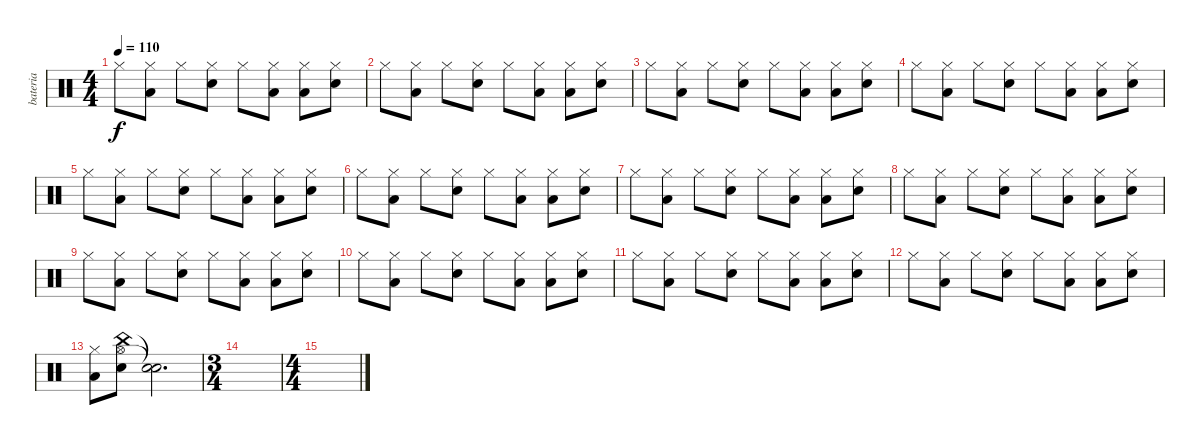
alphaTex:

\track ("bateria" "bateria") {instrument percussion}
\staff {score}
\articulation defaults
\ts (4 4)
\tempo 110
\clef neutral
\ks c "Hi-Hat (closed)".8{dy f}
("Hi-Hat (closed)" "Low Floor Tom (hit)").8 "Hi-Hat (closed)".8 ("Hi-Hat (closed)" "Electric Snare (hit)").8 "Hi-Hat (closed)".8 ("Hi-Hat (closed)" "Low Floor Tom (hit)").8 ("Hi-Hat (closed)" "Low Floor Tom (hit)").8 ("Hi-Hat (closed)" "Electric Snare (hit)").8 |
"Hi-Hat (closed)".8 ("Hi-Hat (closed)" "Low Floor Tom (hit)").8 "Hi-Hat (closed)".8 ("Hi-Hat (closed)" "Electric Snare (hit)").8 "Hi-Hat (closed)".8 ("Hi-Hat (closed)" "Low Floor Tom (hit)").8 ("Hi-Hat (closed)" "Low Floor Tom (hit)").8 ("Hi-Hat (closed)" "Electric Snare (hit)").8 |
"Hi-Hat (closed)".8 ("Hi-Hat (closed)" "Low Floor Tom (hit)").8 "Hi-Hat (closed)".8 ("Hi-Hat (closed)" "Electric Snare (hit)").8 "Hi-Hat (closed)".8 ("Hi-Hat (closed)" "Low Floor Tom (hit)").8 ("Hi-Hat (closed)" "Low Floor Tom (hit)").8 ("Hi-Hat (closed)" "Electric Snare (hit)").8 |
"Hi-Hat (closed)".8 ("Hi-Hat (closed)" "Low Floor Tom (hit)").8 "Hi-Hat (closed)".8 ("Hi-Hat (closed)" "Electric Snare (hit)").8 "Hi-Hat (closed)".8 ("Hi-Hat (closed)" "Low Floor Tom (hit)").8 ("Hi-Hat (closed)" "Low Floor Tom (hit)").8 ("Hi-Hat (closed)" "Electric Snare (hit)").8 |
"Hi-Hat (closed)".8 ("Hi-Hat (closed)" "Low Floor Tom (hit)").8 "Hi-Hat (closed)".8 ("Hi-Hat (closed)" "Electric Snare (hit)").8 "Hi-Hat (closed)".8 ("Hi-Hat (closed)" "Low Floor Tom (hit)").8 ("Hi-Hat (closed)" "Low Floor Tom (hit)").8 ("Hi-Hat (closed)" "Electric Snare (hit)").8 |
"Hi-Hat (closed)".8 ("Hi-Hat (closed)" "Low Floor Tom (hit)").8 "Hi-Hat (closed)".8 ("Hi-Hat (closed)" "Electric Snare (hit)").8 "Hi-Hat (closed)".8 ("Hi-Hat (closed)" "Low Floor Tom (hit)").8 ("Hi-Hat (closed)" "Low Floor Tom (hit)").8 ("Hi-Hat (closed)" "Electric Snare (hit)").8 |
"Hi-Hat (closed)".8 ("Hi-Hat (closed)" "Low Floor Tom (hit)").8 "Hi-Hat (closed)".8 ("Hi-Hat (closed)" "Electric Snare (hit)").8 "Hi-Hat (closed)".8 ("Hi-Hat (closed)" "Low Floor Tom (hit)").8 ("Hi-Hat (closed)" "Low Floor Tom (hit)").8 ("Hi-Hat (closed)" "Electric Snare (hit)").8 |
"Hi-Hat (closed)".8 ("Hi-Hat (closed)" "Low Floor Tom (hit)").8 "Hi-Hat (closed)".8 ("Hi-Hat (closed)" "Electric Snare (hit)").8 "Hi-Hat (closed)".8 ("Hi-Hat (closed)" "Low Floor Tom (hit)").8 ("Hi-Hat (closed)" "Low Floor Tom (hit)").8 ("Hi-Hat (closed)" "Electric Snare (hit)").8 |
"Hi-Hat (closed)".8 ("Hi-Hat (closed)" "Low Floor Tom (hit)").8 "Hi-Hat (closed)".8 ("Hi-Hat (closed)" "Electric Snare (hit)").8 "Hi-Hat (closed)".8 ("Hi-Hat (closed)" "Low Floor Tom (hit)").8 ("Hi-Hat (closed)" "Low Floor Tom (hit)").8 ("Hi-Hat (closed)" "Electric Snare (hit)").8 |
"Hi-Hat (closed)".8 ("Hi-Hat (closed)" "Low Floor Tom (hit)").8 "Hi-Hat (closed)".8 ("Hi-Hat (closed)" "Electric Snare (hit)").8 "Hi-Hat (closed)".8 ("Hi-Hat (closed)" "Low Floor Tom (hit)").8 ("Hi-Hat (closed)" "Low Floor Tom (hit)").8 ("Hi-Hat (closed)" "Electric Snare (hit)").8 |
"Hi-Hat (closed)".8 ("Hi-Hat (closed)" "Low Floor Tom (hit)").8 "Hi-Hat (closed)".8 ("Hi-Hat (closed)" "Electric Snare (hit)").8 "Hi-Hat (closed)".8 ("Hi-Hat (closed)" "Low Floor Tom (hit)").8 ("Hi-Hat (closed)" "Low Floor Tom (hit)").8 ("Hi-Hat (closed)" "Electric Snare (hit)").8 |
"Hi-Hat (closed)".8 ("Hi-Hat (closed)" "Low Floor Tom (hit)").8 "Hi-Hat (closed)".8 ("Hi-Hat (closed)" "Electric Snare (hit)").8 "Hi-Hat (closed)".8 ("Hi-Hat (closed)" "Low Floor Tom (hit)").8 ("Hi-Hat (closed)" "Low Floor Tom (hit)").8 ("Hi-Hat (closed)" "Electric Snare (hit)").8 |
("Hi-Hat (closed)" "Low Floor Tom (hit)").8 ("Hi-Hat (open)" "China (hit)" "Electric Snare (hit)").8 ("Snare (hit)"{t} "Snare (hit)"{t}).2{d} |
\ts (3 4)
|
\ts (4 4)
